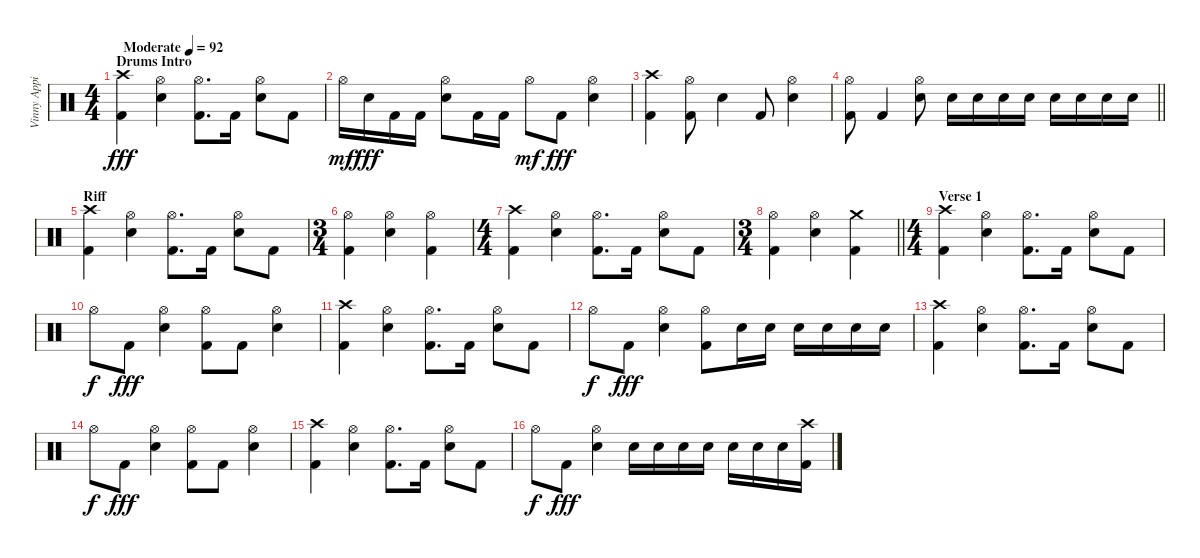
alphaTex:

\track ("Vinny Appice" "Vinny Appi") {instrument percussion}
\staff {score}
\articulation defaults
\ts (4 4)
\section ("" "Drums Intro")
\tempo (92 "Moderate")
\clef neutral
\ks c
("Crash high (hit)" "Kick (hit) 2").4{dy fff} ("Hi-Hat (open)" "Snare (hit) 2").4 ("Hi-Hat (open)" "Kick (hit) 2").8{d} "Kick (hit) 2".16 ("Hi-Hat (open)" "Snare (hit) 2").8 "Kick (hit) 2".8 |
"Hi-Hat (open)".16{dy mf} "Snare (hit) 2".16{dy fff} "Kick (hit) 2".16 "Kick (hit) 2".16 ("Hi-Hat (open)" "Snare (hit) 2").8 "Kick (hit) 2".16 "Kick (hit) 2".16 "Hi-Hat (open)".8{dy mf} "Kick (hit) 2".8{dy fff} ("Hi-Hat (open)" "Snare (hit) 2").4 |
("Crash high (hit)" "Kick (hit) 2").4 ("Hi-Hat (open)" "Kick (hit) 2").8 "Snare (hit) 2".4 "Kick (hit) 2".8 ("Hi-Hat (open)" "Snare (hit) 2").4 |
\barLineRight lightlight
("Hi-Hat (open)" "Kick (hit) 2").8 "Kick (hit) 2".4 ("Hi-Hat (open)" "Snare (hit) 2").8 "Snare (hit) 2".16 "Snare (hit) 2".16 "Snare (hit) 2".16 "Snare (hit) 2".16 "Snare (hit) 2".16 "Snare (hit) 2".16 "Snare (hit) 2".16 "Snare (hit) 2".16 |
\section ("" "Riff")
("Crash high (hit)" "Kick (hit) 2").4 ("Hi-Hat (open)" "Snare (hit) 2").4 ("Hi-Hat (open)" "Kick (hit) 2").8{d} "Kick (hit) 2".16 ("Hi-Hat (open)" "Snare (hit) 2").8 "Kick (hit) 2".8 |
\ts (3 4)
("Hi-Hat (open)" "Kick (hit) 2").4 ("Hi-Hat (open)" "Snare (hit) 2").4 ("Hi-Hat (open)" "Kick (hit) 2").4 |
\ts (4 4)
("Crash high (hit)" "Kick (hit) 2").4 ("Hi-Hat (open)" "Snare (hit) 2").4 ("Hi-Hat (open)" "Kick (hit) 2").8{d} "Kick (hit) 2".16 ("Hi-Hat (open)" "Snare (hit) 2").8 "Kick (hit) 2".8 |
\ts (3 4)
\barLineRight lightlight
("Hi-Hat (open)" "Kick (hit) 2").4 ("Hi-Hat (open)" "Snare (hit) 2").4 ("Crash medium (hit)" "Kick (hit) 2").4 |
\ts (4 4)
\section ("" "Verse 1")
("Crash high (hit)" "Kick (hit) 2").4 ("Hi-Hat (open)" "Snare (hit) 2").4 ("Hi-Hat (open)" "Kick (hit) 2").8{d} "Kick (hit) 2".16 ("Hi-Hat (open)" "Snare (hit) 2").8 "Kick (hit) 2".8 |
"Hi-Hat (open)".8{dy f} "Kick (hit) 2".8{dy fff} ("Hi-Hat (open)" "Snare (hit) 2").4 ("Hi-Hat (open)" "Kick (hit) 2").8 "Kick (hit) 2".8 ("Hi-Hat (open)" "Snare (hit) 2").4 |
("Crash high (hit)" "Kick (hit) 2").4 ("Hi-Hat (open)" "Snare (hit) 2").4 ("Hi-Hat (open)" "Kick (hit) 2").8{d} "Kick (hit) 2".16 ("Hi-Hat (open)" "Snare (hit) 2").8 "Kick (hit) 2".8 |
"Hi-Hat (open)".8{dy f} "Kick (hit) 2".8{dy fff} ("Hi-Hat (open)" "Snare (hit) 2").4 ("Hi-Hat (open)" "Kick (hit) 2").8 "Snare (hit) 2".16 "Snare (hit) 2".16 "Snare (hit) 2".16 "Snare (hit) 2".16 "Snare (hit) 2".16 "Snare (hit) 2".16 |
("Crash high (hit)" "Kick (hit) 2").4 ("Hi-Hat (open)" "Snare (hit) 2").4 ("Hi-Hat (open)" "Kick (hit) 2").8{d} "Kick (hit) 2".16 ("Hi-Hat (open)" "Snare (hit) 2").8 "Kick (hit) 2".8 |
"Hi-Hat (open)".8{dy f} "Kick (hit) 2".8{dy fff} ("Hi-Hat (open)" "Snare (hit) 2").4 ("Hi-Hat (open)" "Kick (hit) 2").8 "Kick (hit) 2".8 ("Hi-Hat (open)" "Snare (hit) 2").4 |
("Crash high (hit)" "Kick (hit) 2").4 ("Hi-Hat (open)" "Snare (hit) 2").4 ("Hi-Hat (open)" "Kick (hit) 2").8{d} "Kick (hit) 2".16 ("Hi-Hat (open)" "Snare (hit) 2").8 "Kick (hit) 2".8 |
"Hi-Hat (open)".8{dy f} "Kick (hit) 2".8{dy fff} ("Hi-Hat (open)" "Snare (hit) 2").4 "Snare (hit) 2".16 "Snare (hit) 2".16 "Snare (hit) 2".16 "Snare (hit) 2".16 "Snare (hit) 2".16 "Snare (hit) 2".16 "Snare (hit) 2".16 ("Crash high (hit)" "Kick (hit) 2").16
